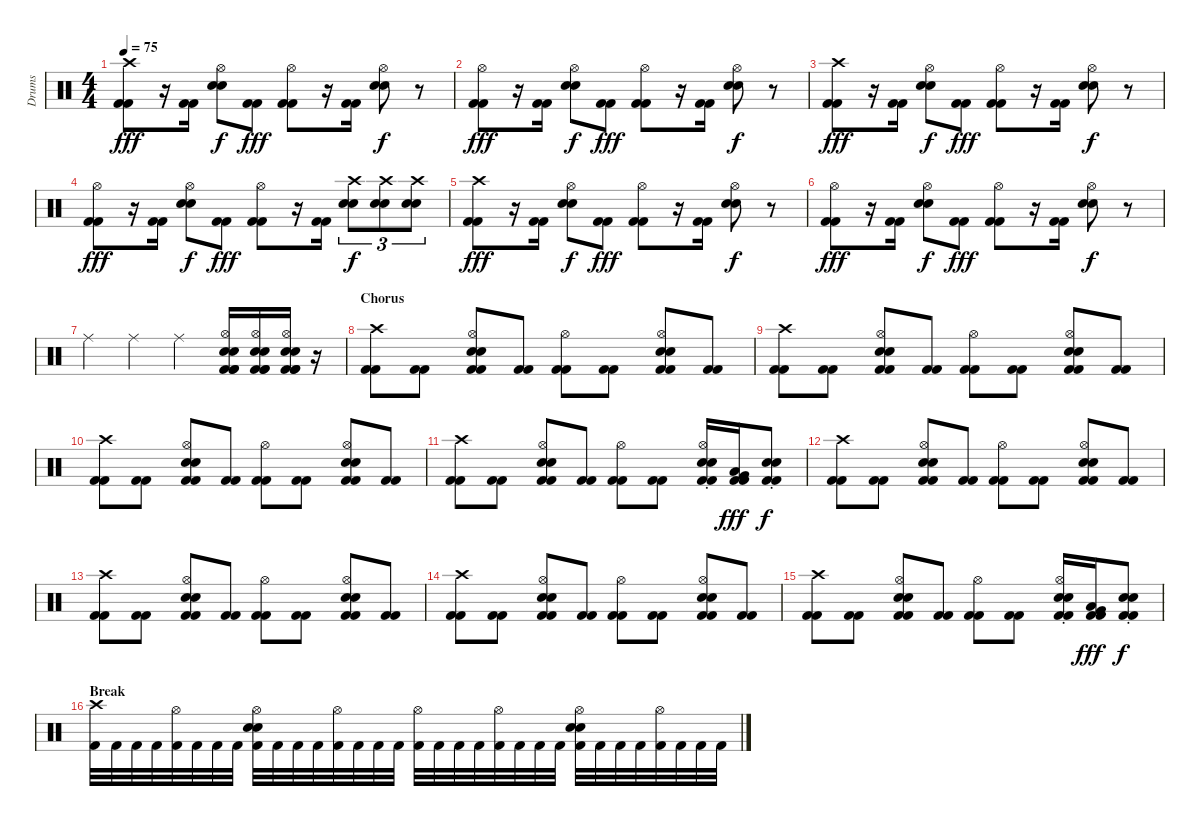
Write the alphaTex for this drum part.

\track ("Drums" "Drums") {instrument percussion}
\staff {score}
\articulation defaults
\ts (4 4)
\tempo 75
\clef neutral
\ks c
("Crash high (hit)" "Kick (hit) 2" "Kick (hit) 2").8{dy fff} r.16 ("Kick (hit) 2" "Kick (hit) 2").16 ("Hi-Hat (open)" "Snare (hit) 2" "Snare (hit) 2").8{dy f} ("Kick (hit) 2" "Kick (hit) 2").8{dy fff} ("Hi-Hat (open)" "Kick (hit) 2" "Kick (hit) 2").8 r.16 ("Kick (hit) 2" "Kick (hit) 2").16 ("Hi-Hat (open)" "Snare (hit) 2" "Snare (hit) 2").8{dy f} r.8 |
("Hi-Hat (open)" "Kick (hit) 2" "Kick (hit) 2").8{dy fff} r.16 ("Kick (hit) 2" "Kick (hit) 2").16 ("Hi-Hat (open)" "Snare (hit) 2" "Snare (hit) 2").8{dy f} ("Kick (hit) 2" "Kick (hit) 2").8{dy fff} ("Hi-Hat (open)" "Kick (hit) 2" "Kick (hit) 2").8 r.16 ("Kick (hit) 2" "Kick (hit) 2").16 ("Hi-Hat (open)" "Snare (hit) 2" "Snare (hit) 2").8{dy f} r.8 |
("Crash high (hit)" "Kick (hit) 2" "Kick (hit) 2").8{dy fff} r.16 ("Kick (hit) 2" "Kick (hit) 2").16 ("Hi-Hat (open)" "Snare (hit) 2" "Snare (hit) 2").8{dy f} ("Kick (hit) 2" "Kick (hit) 2").8{dy fff} ("Hi-Hat (open)" "Kick (hit) 2" "Kick (hit) 2").8 r.16 ("Kick (hit) 2" "Kick (hit) 2").16 ("Hi-Hat (open)" "Snare (hit) 2" "Snare (hit) 2").8{dy f} r.8 |
("Hi-Hat (open)" "Kick (hit) 2" "Kick (hit) 2").8{dy fff} r.16 ("Kick (hit) 2" "Kick (hit) 2").16 ("Hi-Hat (open)" "Snare (hit) 2" "Snare (hit) 2").8{dy f} ("Kick (hit) 2" "Kick (hit) 2").8{dy fff} ("Hi-Hat (open)" "Kick (hit) 2" "Kick (hit) 2").8 r.16 ("Kick (hit) 2" "Kick (hit) 2").16 ("Crash high (hit)" "Snare (hit) 2" "Snare (hit) 2").8{tu (3 2) dy f} ("Crash high (hit)" "Snare (hit) 2" "Snare (hit) 2").8{tu (3 2)} ("Crash high (hit)" "Snare (hit) 2" "Snare (hit) 2").8{tu (3 2)} |
("Crash high (hit)" "Kick (hit) 2" "Kick (hit) 2").8{dy fff} r.16 ("Kick (hit) 2" "Kick (hit) 2").16 ("Hi-Hat (open)" "Snare (hit) 2" "Snare (hit) 2").8{dy f} ("Kick (hit) 2" "Kick (hit) 2").8{dy fff} ("Hi-Hat (open)" "Kick (hit) 2" "Kick (hit) 2").8 r.16 ("Kick (hit) 2" "Kick (hit) 2").16 ("Hi-Hat (open)" "Snare (hit) 2" "Snare (hit) 2").8{dy f} r.8 |
("Hi-Hat (open)" "Kick (hit) 2" "Kick (hit) 2").8{dy fff} r.16 ("Kick (hit) 2" "Kick (hit) 2").16 ("Hi-Hat (open)" "Snare (hit) 2" "Snare (hit) 2").8{dy f} ("Kick (hit) 2" "Kick (hit) 2").8{dy fff} ("Hi-Hat (open)" "Kick (hit) 2" "Kick (hit) 2").8 r.16 ("Kick (hit) 2" "Kick (hit) 2").16 ("Hi-Hat (open)" "Snare (hit) 2" "Snare (hit) 2").8{dy f} r.8 |
"Ride (middle)".4 "Ride (middle)".4 "Ride (middle)".4 ("Kick (hit) 2" "Hi-Hat (open)" "Snare (hit) 2" "Snare (hit) 2" "Kick (hit) 2" "Kick (hit) 2").16 ("Hi-Hat (open)" "Snare (hit) 2" "Snare (hit) 2" "Kick (hit) 2" "Kick (hit) 2" "Kick (hit) 2").16 ("Hi-Hat (open)" "Snare (hit) 2" "Snare (hit) 2" "Kick (hit) 2" "Kick (hit) 2" "Kick (hit) 2").16 r.16 |
\section ("" "Chorus")
("Crash high (hit)" "Kick (hit) 2" "Kick (hit) 2").8 ("Kick (hit) 2" "Kick (hit) 2").8 ("Hi-Hat (open)" "Snare (hit) 2" "Snare (hit) 2" "Kick (hit) 2" "Kick (hit) 2").8 ("Kick (hit) 2" "Kick (hit) 2").8 ("Hi-Hat (open)" "Kick (hit) 2" "Kick (hit) 2").8 ("Kick (hit) 2" "Kick (hit) 2").8 ("Hi-Hat (open)" "Snare (hit) 2" "Snare (hit) 2" "Kick (hit) 2" "Kick (hit) 2").8 ("Kick (hit) 2" "Kick (hit) 2").8 |
("Crash high (hit)" "Kick (hit) 2" "Kick (hit) 2").8 ("Kick (hit) 2" "Kick (hit) 2").8 ("Hi-Hat (open)" "Snare (hit) 2" "Snare (hit) 2" "Kick (hit) 2" "Kick (hit) 2").8 ("Kick (hit) 2" "Kick (hit) 2").8 ("Hi-Hat (open)" "Kick (hit) 2" "Kick (hit) 2").8 ("Kick (hit) 2" "Kick (hit) 2").8 ("Hi-Hat (open)" "Snare (hit) 2" "Snare (hit) 2" "Kick (hit) 2" "Kick (hit) 2").8 ("Kick (hit) 2" "Kick (hit) 2").8 |
("Crash high (hit)" "Kick (hit) 2" "Kick (hit) 2").8 ("Kick (hit) 2" "Kick (hit) 2").8 ("Hi-Hat (open)" "Snare (hit) 2" "Snare (hit) 2" "Kick (hit) 2" "Kick (hit) 2").8 ("Kick (hit) 2" "Kick (hit) 2").8 ("Hi-Hat (open)" "Kick (hit) 2" "Kick (hit) 2").8 ("Kick (hit) 2" "Kick (hit) 2").8 ("Hi-Hat (open)" "Snare (hit) 2" "Snare (hit) 2" "Kick (hit) 2" "Kick (hit) 2").8 ("Kick (hit) 2" "Kick (hit) 2").8 |
("Crash high (hit)" "Kick (hit) 2" "Kick (hit) 2").8 ("Kick (hit) 2" "Kick (hit) 2").8 ("Hi-Hat (open)" "Snare (hit) 2" "Snare (hit) 2" "Kick (hit) 2" "Kick (hit) 2").8 ("Kick (hit) 2" "Kick (hit) 2").8 ("Hi-Hat (open)" "Kick (hit) 2" "Kick (hit) 2").8 ("Kick (hit) 2" "Kick (hit) 2").8 ("Hi-Hat (open)"{st} "Snare (hit) 2"{st} "Snare (hit) 2"{st} "Kick (hit) 2"{st} "Kick (hit) 2"{st}).16 ("Low Floor Tom (hit)" "Very Low Tom (hit)" "Kick (hit) 2" "Kick (hit) 2").16{dy fff} ("Snare (hit) 2"{st} "Snare (hit) 2"{st} "Kick (hit) 2"{st} "Kick (hit) 2"{st}).8{dy f} |
("Crash high (hit)" "Kick (hit) 2" "Kick (hit) 2").8 ("Kick (hit) 2" "Kick (hit) 2").8 ("Hi-Hat (open)" "Snare (hit) 2" "Snare (hit) 2" "Kick (hit) 2" "Kick (hit) 2").8 ("Kick (hit) 2" "Kick (hit) 2").8 ("Hi-Hat (open)" "Kick (hit) 2" "Kick (hit) 2").8 ("Kick (hit) 2" "Kick (hit) 2").8 ("Hi-Hat (open)" "Snare (hit) 2" "Snare (hit) 2" "Kick (hit) 2" "Kick (hit) 2").8 ("Kick (hit) 2" "Kick (hit) 2").8 |
("Crash high (hit)" "Kick (hit) 2" "Kick (hit) 2").8 ("Kick (hit) 2" "Kick (hit) 2").8 ("Hi-Hat (open)" "Snare (hit) 2" "Snare (hit) 2" "Kick (hit) 2" "Kick (hit) 2").8 ("Kick (hit) 2" "Kick (hit) 2").8 ("Hi-Hat (open)" "Kick (hit) 2" "Kick (hit) 2").8 ("Kick (hit) 2" "Kick (hit) 2").8 ("Hi-Hat (open)" "Snare (hit) 2" "Snare (hit) 2" "Kick (hit) 2" "Kick (hit) 2").8 ("Kick (hit) 2" "Kick (hit) 2").8 |
("Crash high (hit)" "Kick (hit) 2" "Kick (hit) 2").8 ("Kick (hit) 2" "Kick (hit) 2").8 ("Hi-Hat (open)" "Snare (hit) 2" "Snare (hit) 2" "Kick (hit) 2" "Kick (hit) 2").8 ("Kick (hit) 2" "Kick (hit) 2").8 ("Hi-Hat (open)" "Kick (hit) 2" "Kick (hit) 2").8 ("Kick (hit) 2" "Kick (hit) 2").8 ("Hi-Hat (open)" "Snare (hit) 2" "Snare (hit) 2" "Kick (hit) 2" "Kick (hit) 2").8 ("Kick (hit) 2" "Kick (hit) 2").8 |
("Crash high (hit)" "Kick (hit) 2" "Kick (hit) 2").8 ("Kick (hit) 2" "Kick (hit) 2").8 ("Hi-Hat (open)" "Snare (hit) 2" "Snare (hit) 2" "Kick (hit) 2" "Kick (hit) 2").8 ("Kick (hit) 2" "Kick (hit) 2").8 ("Hi-Hat (open)" "Kick (hit) 2" "Kick (hit) 2").8 ("Kick (hit) 2" "Kick (hit) 2").8 ("Hi-Hat (open)"{st} "Snare (hit) 2"{st} "Snare (hit) 2"{st} "Kick (hit) 2"{st} "Kick (hit) 2"{st}).16 ("Low Floor Tom (hit)" "Very Low Tom (hit)" "Kick (hit) 2" "Kick (hit) 2").16{dy fff} ("Snare (hit) 2"{st} "Snare (hit) 2"{st} "Kick (hit) 2"{st} "Kick (hit) 2"{st}).8{dy f} |
\section ("" "Break")
("Crash high (hit)" "Kick (hit) 2").32 "Kick (hit) 2".32 "Kick (hit) 2".32 "Kick (hit) 2".32 ("Hi-Hat (open)" "Kick (hit) 2").32 "Kick (hit) 2".32 "Kick (hit) 2".32 "Kick (hit) 2".32 ("Hi-Hat (open)" "Snare (hit) 2" "Snare (hit) 2" "Kick (hit) 2").32 "Kick (hit) 2".32 "Kick (hit) 2".32 "Kick (hit) 2".32 ("Hi-Hat (open)" "Kick (hit) 2").32 "Kick (hit) 2".32 "Kick (hit) 2".32 "Kick (hit) 2".32 ("Hi-Hat (open)" "Kick (hit) 2").32 "Kick (hit) 2".32 "Kick (hit) 2".32 "Kick (hit) 2".32 ("Hi-Hat (open)" "Kick (hit) 2").32 "Kick (hit) 2".32 "Kick (hit) 2".32 "Kick (hit) 2".32 ("Hi-Hat (open)" "Snare (hit) 2" "Snare (hit) 2" "Kick (hit) 2").32 "Kick (hit) 2".32 "Kick (hit) 2".32 "Kick (hit) 2".32 ("Hi-Hat (open)" "Kick (hit) 2").32 "Kick (hit) 2".32 "Kick (hit) 2".32 "Kick (hit) 2".32
